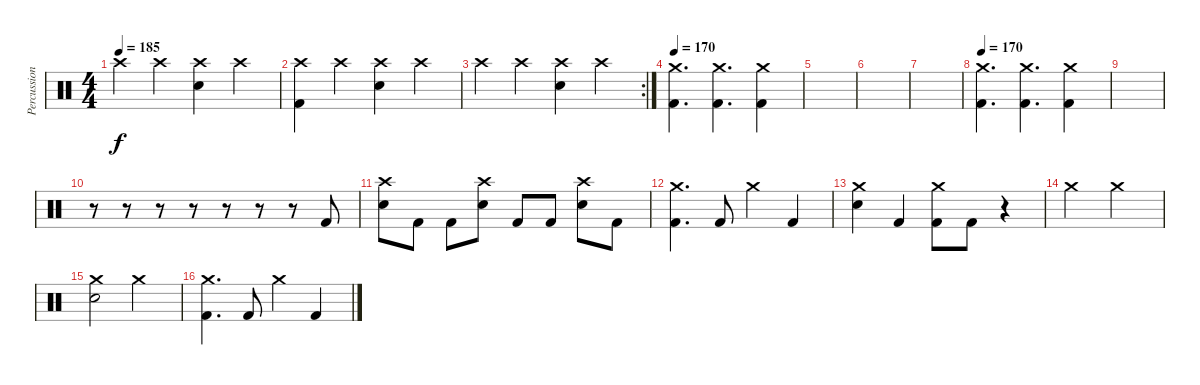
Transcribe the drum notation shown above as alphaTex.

\track ("Percussion" "Percussion") {instrument percussion}
\staff {score}
\articulation defaults
\ts (4 4)
\tempo 185
\clef neutral
\ks c "Crash high (hit)".4{dy f} "Crash high (hit)".4
("Crash high (hit)" "Snare (hit) 2").4 "Crash high (hit)".4 |
("Crash high (hit)" "Kick (hit) 2").4 "Crash high (hit)".4 ("Crash high (hit)" "Snare (hit) 2").4 "Crash high (hit)".4 |
\rc 2 "Crash high (hit)".4 "Crash high (hit)".4
("Crash high (hit)" "Snare (hit) 2").4 "Crash high (hit)".4 |
\tempo 170
("Crash medium (hit)" "Kick (hit) 2").4{d} ("Crash medium (hit)" "Kick (hit) 2").4{d} ("Crash medium (hit)" "Kick (hit) 2").4 |
|
|
|
\tempo 170
("Crash medium (hit)" "Kick (hit) 2").4{d} ("Crash medium (hit)" "Kick (hit) 2").4{d} ("Crash medium (hit)" "Kick (hit) 2").4 |
|
r.8 r.8 r.8 r.8 r.8 r.8 r.8 "Kick (hit) 2".8 |
("Crash high (hit)" "Snare (hit) 2").8 "Kick (hit) 2".8 "Kick (hit) 2".8 ("Crash high (hit)" "Snare (hit) 2").8 "Kick (hit) 2".8 "Kick (hit) 2".8 ("Crash high (hit)" "Snare (hit) 2").8 "Kick (hit) 2".8 |
("Crash medium (hit)" "Kick (hit) 2").4{d} "Kick (hit) 2".8 "Crash medium (hit)".4 "Kick (hit) 2".4 |
("Crash medium (hit)" "Snare (hit) 2").4 "Kick (hit) 2".4 ("Crash medium (hit)" "Kick (hit) 2").8 "Kick (hit) 2".8 r.4 |
"Crash medium (hit)".2 "Crash medium (hit)".2 |
("Crash medium (hit)" "Snare (hit) 2").2 "Crash medium (hit)".2 |
("Crash medium (hit)" "Kick (hit) 2").4{d} "Kick (hit) 2".8 "Crash medium (hit)".4 "Kick (hit) 2".4
